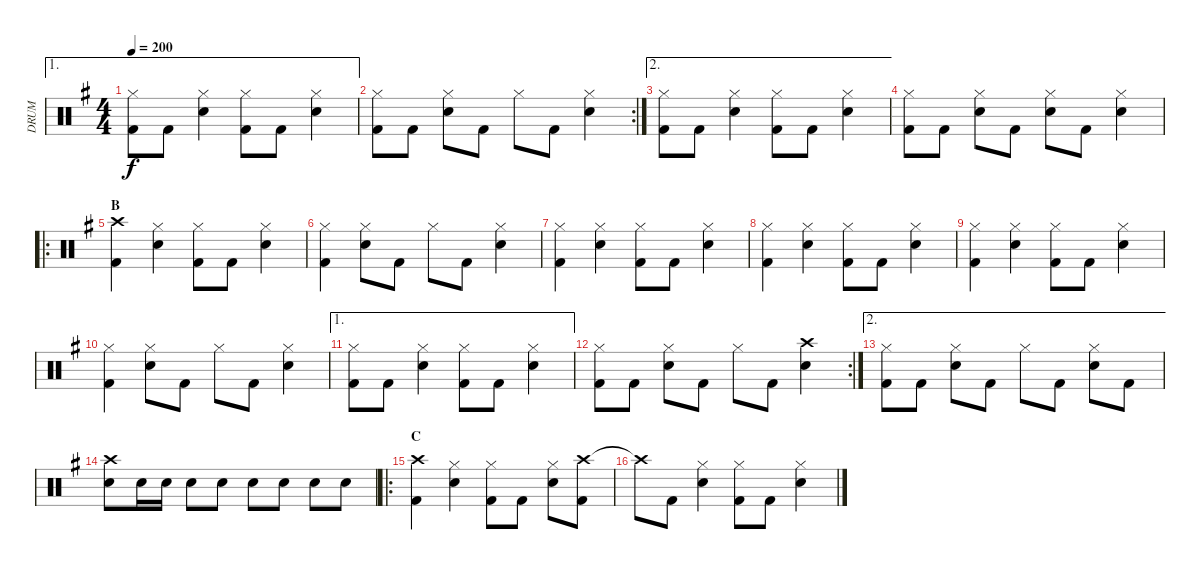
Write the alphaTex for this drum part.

\track ("DRUM" "DRUM") {instrument percussion}
\staff {score}
\articulation defaults
\ae 1
\ts (4 4)
\tempo 200
\clef neutral
\ks eminor
("Hi-Hat (closed)" "Kick (hit) 2").8{dy f} "Kick (hit) 2".8 ("Hi-Hat (closed)" "Snare (hit) 2").4 ("Hi-Hat (closed)" "Kick (hit) 2").8 "Kick (hit) 2".8 ("Hi-Hat (closed)" "Snare (hit) 2").4 |
\rc 2
("Hi-Hat (closed)" "Kick (hit) 2").8 "Kick (hit) 2".8 ("Hi-Hat (closed)" "Snare (hit) 2").8 "Kick (hit) 2".8 "Hi-Hat (closed)".8 "Kick (hit) 2".8 ("Hi-Hat (closed)" "Snare (hit) 2").4 |
\ae 2
("Hi-Hat (closed)" "Kick (hit) 2").8 "Kick (hit) 2".8 ("Hi-Hat (closed)" "Snare (hit) 2").4 ("Hi-Hat (closed)" "Kick (hit) 2").8 "Kick (hit) 2".8 ("Hi-Hat (closed)" "Snare (hit) 2").4 |
("Hi-Hat (closed)" "Kick (hit) 2").8 "Kick (hit) 2".8 ("Hi-Hat (closed)" "Snare (hit) 2").8 "Kick (hit) 2".8 ("Hi-Hat (closed)" "Snare (hit) 2").8 "Kick (hit) 2".8 ("Hi-Hat (closed)" "Snare (hit) 2").4 |
\ro
\section ("" "B")
("Crash high (hit)" "Kick (hit) 2").4 ("Hi-Hat (closed)" "Snare (hit) 2").4 ("Hi-Hat (closed)" "Kick (hit) 2").8 "Kick (hit) 2".8 ("Hi-Hat (closed)" "Snare (hit) 2").4 |
("Hi-Hat (closed)" "Kick (hit) 2").4 ("Hi-Hat (closed)" "Snare (hit) 2").8 "Kick (hit) 2".8 "Hi-Hat (closed)".8 "Kick (hit) 2".8 ("Hi-Hat (closed)" "Snare (hit) 2").4 |
("Hi-Hat (closed)" "Kick (hit) 2").4 ("Hi-Hat (closed)" "Snare (hit) 2").4 ("Hi-Hat (closed)" "Kick (hit) 2").8 "Kick (hit) 2".8 ("Hi-Hat (closed)" "Snare (hit) 2").4 |
("Hi-Hat (closed)" "Kick (hit) 2").4 ("Hi-Hat (closed)" "Snare (hit) 2").4 ("Hi-Hat (closed)" "Kick (hit) 2").8 "Kick (hit) 2".8 ("Hi-Hat (closed)" "Snare (hit) 2").4 |
("Hi-Hat (closed)" "Kick (hit) 2").4 ("Hi-Hat (closed)" "Snare (hit) 2").4 ("Hi-Hat (closed)" "Kick (hit) 2").8 "Kick (hit) 2".8 ("Hi-Hat (closed)" "Snare (hit) 2").4 |
("Hi-Hat (closed)" "Kick (hit) 2").4 ("Hi-Hat (closed)" "Snare (hit) 2").8 "Kick (hit) 2".8 "Hi-Hat (closed)".8 "Kick (hit) 2".8 ("Hi-Hat (closed)" "Snare (hit) 2").4 |
\ae 1
("Hi-Hat (closed)" "Kick (hit) 2").8 "Kick (hit) 2".8 ("Hi-Hat (closed)" "Snare (hit) 2").4 ("Hi-Hat (closed)" "Kick (hit) 2").8 "Kick (hit) 2".8 ("Hi-Hat (closed)" "Snare (hit) 2").4 |
\rc 2
("Hi-Hat (closed)" "Kick (hit) 2").8 "Kick (hit) 2".8 ("Hi-Hat (closed)" "Snare (hit) 2").8 "Kick (hit) 2".8 "Hi-Hat (closed)".8 "Kick (hit) 2".8 ("Crash high (hit)" "Snare (hit) 2").4 |
\ae 2
("Hi-Hat (closed)" "Kick (hit) 2").8 "Kick (hit) 2".8 ("Hi-Hat (closed)" "Snare (hit) 2").8 "Kick (hit) 2".8 "Hi-Hat (closed)".8 "Kick (hit) 2".8 ("Hi-Hat (closed)" "Snare (hit) 2").8 "Kick (hit) 2".8 |
("Crash high (hit)" "Snare (hit) 2").8 "Snare (hit) 2".16 "Snare (hit) 2".16 "Snare (hit) 2".8 "Snare (hit) 2".8 "Snare (hit) 2".8 "Snare (hit) 2".8 "Snare (hit) 2".8 "Snare (hit) 2".8 |
\ro
\section ("" "C")
("Crash high (hit)" "Kick (hit) 2").4 ("Hi-Hat (closed)" "Snare (hit) 2").4 ("Hi-Hat (closed)" "Kick (hit) 2").8 "Kick (hit) 2".8 ("Hi-Hat (closed)" "Snare (hit) 2").8 ("Crash high (hit)" "Kick (hit) 2").8 |
"Crash high (hit)"{t}.8 "Kick (hit) 2".8 ("Hi-Hat (closed)" "Snare (hit) 2").4 ("Hi-Hat (closed)" "Kick (hit) 2").8 "Kick (hit) 2".8 ("Hi-Hat (closed)" "Snare (hit) 2").4
